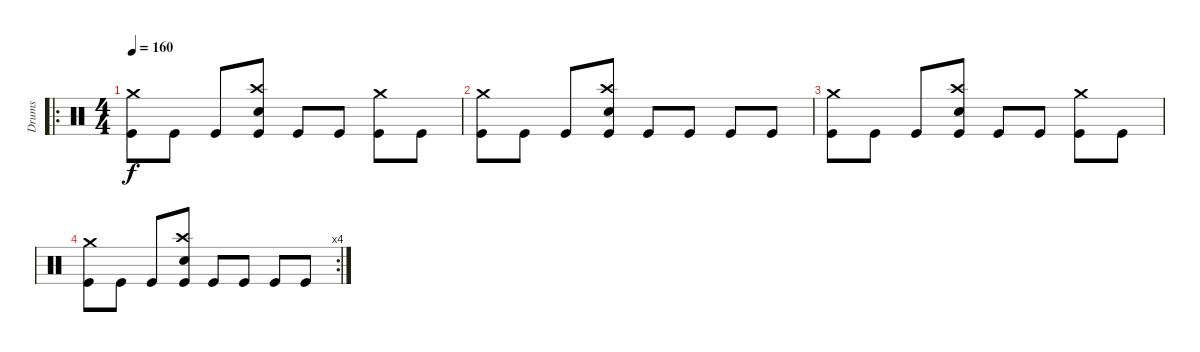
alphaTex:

\track ("Drums" "Drums") {instrument percussion}
\staff {score}
\articulation defaults
\ro
\ts (4 4)
\tempo 160
\clef neutral
\ks c
("Crash medium (hit)" "Kick (hit)").8{dy f} "Kick (hit)".8 "Kick (hit)".8 ("Crash high (hit)" "Snare (hit) 2" "Kick (hit)").8 "Kick (hit)".8 "Kick (hit)".8 ("Crash medium (hit)" "Kick (hit)").8 "Kick (hit)".8 |
("Crash medium (hit)" "Kick (hit)").8 "Kick (hit)".8 "Kick (hit)".8 ("Crash high (hit)" "Snare (hit) 2" "Kick (hit)").8 "Kick (hit)".8 "Kick (hit)".8 "Kick (hit)".8 "Kick (hit)".8 |
("Crash medium (hit)" "Kick (hit)").8 "Kick (hit)".8 "Kick (hit)".8 ("Crash high (hit)" "Snare (hit) 2" "Kick (hit)").8 "Kick (hit)".8 "Kick (hit)".8 ("Crash medium (hit)" "Kick (hit)").8 "Kick (hit)".8 |
\rc 4
("Crash medium (hit)" "Kick (hit)").8 "Kick (hit)".8 "Kick (hit)".8 ("Crash high (hit)" "Snare (hit) 2" "Kick (hit)").8 "Kick (hit)".8 "Kick (hit)".8 "Kick (hit)".8 "Kick (hit)".8
